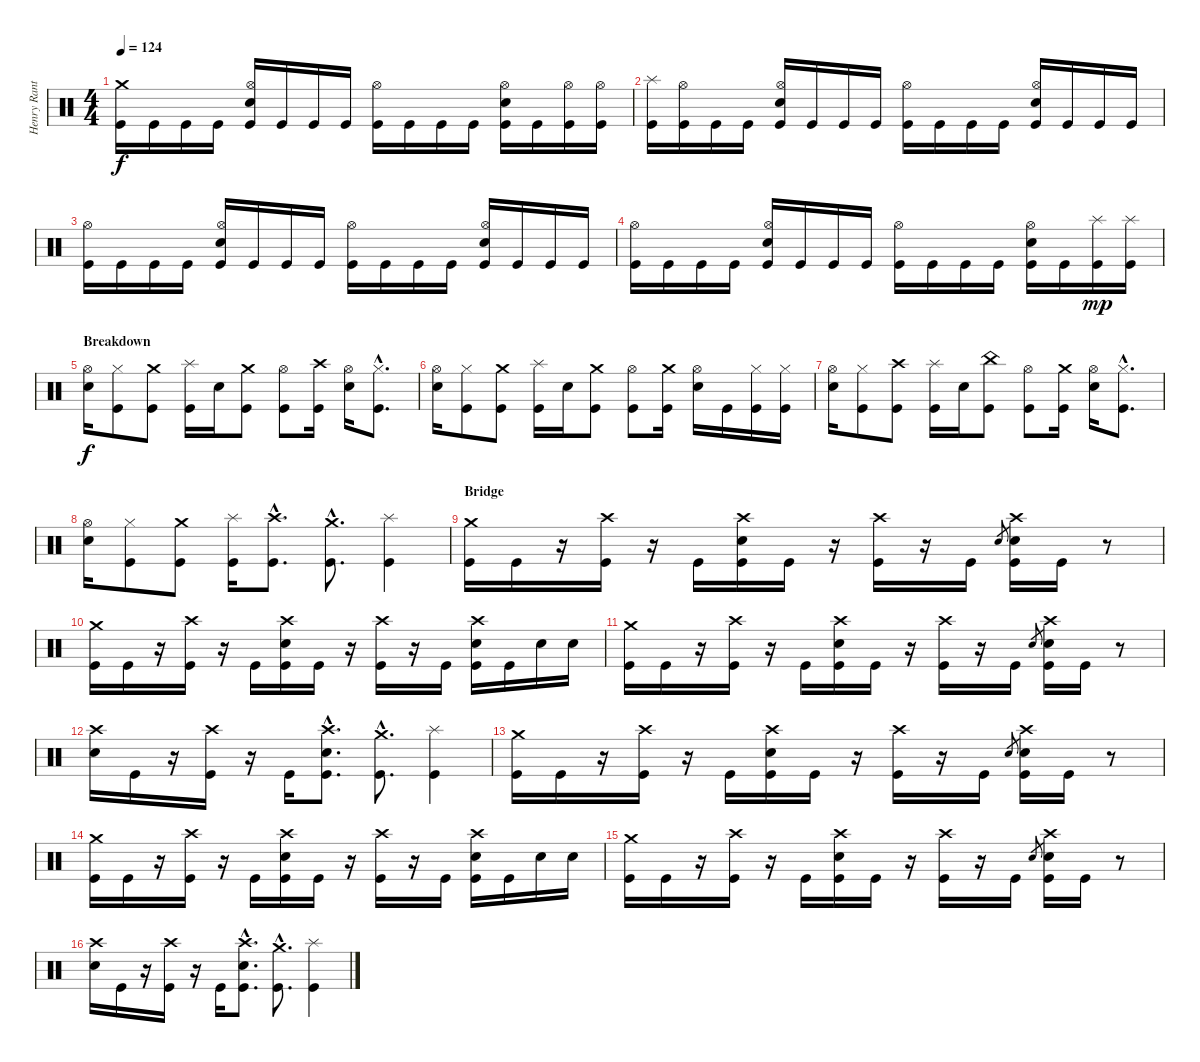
\track ("Henry Ranta" "Henry Rant") {instrument percussion}
\staff {score}
\articulation defaults
\ts (4 4)
\tempo 124
\clef neutral
\ks c
("Crash medium (hit)" "Kick (hit)").16{dy f} "Kick (hit)".16 "Kick (hit)".16 "Kick (hit)".16 ("Hi-Hat (open)" "Electric Snare (hit)" "Kick (hit)").16 "Kick (hit)".16 "Kick (hit)".16 "Kick (hit)".16 ("Hi-Hat (open)" "Kick (hit)").16 "Kick (hit)".16 "Kick (hit)".16 "Kick (hit)".16 ("Hi-Hat (open)" "Electric Snare (hit)" "Kick (hit)").16 "Kick (hit)".16 ("Hi-Hat (open)" "Kick (hit)").16 ("Hi-Hat (open)" "Kick (hit)").16 |
("Splash (hit)" "Kick (hit)").16 ("Hi-Hat (open)" "Kick (hit)").16 "Kick (hit)".16 "Kick (hit)".16 ("Hi-Hat (open)" "Electric Snare (hit)" "Kick (hit)").16 "Kick (hit)".16 "Kick (hit)".16 "Kick (hit)".16 ("Hi-Hat (open)" "Kick (hit)").16 "Kick (hit)".16 "Kick (hit)".16 "Kick (hit)".16 ("Hi-Hat (open)" "Electric Snare (hit)" "Kick (hit)").16 "Kick (hit)".16 "Kick (hit)".16 "Kick (hit)".16 |
("Hi-Hat (open)" "Kick (hit)").16 "Kick (hit)".16 "Kick (hit)".16 "Kick (hit)".16 ("Hi-Hat (open)" "Electric Snare (hit)" "Kick (hit)").16 "Kick (hit)".16 "Kick (hit)".16 "Kick (hit)".16 ("Hi-Hat (open)" "Kick (hit)").16 "Kick (hit)".16 "Kick (hit)".16 "Kick (hit)".16 ("Hi-Hat (open)" "Electric Snare (hit)" "Kick (hit)").16 "Kick (hit)".16 "Kick (hit)".16 "Kick (hit)".16 |
("Hi-Hat (open)" "Kick (hit)").16 "Kick (hit)".16 "Kick (hit)".16 "Kick (hit)".16 ("Hi-Hat (open)" "Electric Snare (hit)" "Kick (hit)").16 "Kick (hit)".16 "Kick (hit)".16 "Kick (hit)".16 ("Hi-Hat (open)" "Kick (hit)").16 "Kick (hit)".16 "Kick (hit)".16 "Kick (hit)".16 ("Hi-Hat (open)" "Electric Snare (hit)" "Kick (hit)").16 "Kick (hit)".16 ("Splash (hit)" "Kick (hit)").16{dy mp} ("Splash (hit)" "Kick (hit)").16 |
\section ("" "Breakdown")
("Hi-Hat (open)" "Electric Snare (hit)").16{dy f} ("Hi-Hat (closed)" "Kick (hit)").8 ("Crash medium (hit)" "Kick (hit)").8 ("Splash (hit)" "Kick (hit)").16 "Electric Snare (hit)".16 ("Crash medium (hit)" "Kick (hit)").8 ("Hi-Hat (open)" "Kick (hit)").8 ("Crash high (hit)" "Kick (hit)").16 ("Hi-Hat (open)" "Electric Snare (hit)").16 ("Hi-Hat (closed)"{hac} "Kick (hit)"{hac}).8{d} |
("Hi-Hat (open)" "Electric Snare (hit)").16 ("Hi-Hat (closed)" "Kick (hit)").8 ("Crash medium (hit)" "Kick (hit)").8 ("Splash (hit)" "Kick (hit)").16 "Electric Snare (hit)".16 ("Crash medium (hit)" "Kick (hit)").8 ("Hi-Hat (open)" "Kick (hit)").8 ("Crash medium (hit)" "Kick (hit)").16 ("Hi-Hat (open)" "Electric Snare (hit)").16 "Kick (hit)".16 ("Hi-Hat (closed)" "Kick (hit)").16 ("Hi-Hat (closed)" "Kick (hit)").16 |
("Hi-Hat (open)" "Electric Snare (hit)").16 ("Hi-Hat (closed)" "Kick (hit)").8 ("Crash high (hit)" "Kick (hit)").8 ("Splash (hit)" "Kick (hit)").16 "Electric Snare (hit)".16 ("China (hit)" "Kick (hit)").8 ("Hi-Hat (open)" "Kick (hit)").8 ("Crash medium (hit)" "Kick (hit)").16 ("Hi-Hat (open)" "Electric Snare (hit)").16 ("Hi-Hat (closed)"{hac} "Kick (hit)"{hac}).8{d} |
("Hi-Hat (open)" "Electric Snare (hit)").16 ("Hi-Hat (closed)" "Kick (hit)").8 ("Crash medium (hit)" "Kick (hit)").8 ("Splash (hit)" "Kick (hit)").16 ("Crash high (hit)"{hac} "Kick (hit)"{hac}).8{d} ("Crash medium (hit)"{hac} "Kick (hit)"{hac}).8{d} ("Splash (hit)" "Kick (hit)").4 |
\section ("" "Bridge")
("Crash medium (hit)" "Kick (hit)").16 "Kick (hit)".16 r.16 ("Crash high (hit)" "Kick (hit)").16 r.16 "Kick (hit)".16 ("Crash high (hit)" "Electric Snare (hit)" "Kick (hit)").16 "Kick (hit)".16 r.16 ("Crash high (hit)" "Kick (hit)").16 r.16 "Kick (hit)".16 "Electric Snare (hit)".8{gr} ("Crash high (hit)" "Electric Snare (hit)" "Kick (hit)").16 "Kick (hit)".16 r.8 |
("Crash medium (hit)" "Kick (hit)").16 "Kick (hit)".16 r.16 ("Crash high (hit)" "Kick (hit)").16 r.16 "Kick (hit)".16 ("Crash high (hit)" "Electric Snare (hit)" "Kick (hit)").16 "Kick (hit)".16 r.16 ("Crash high (hit)" "Kick (hit)").16 r.16 "Kick (hit)".16 ("Crash high (hit)" "Electric Snare (hit)" "Kick (hit)").16 "Kick (hit)".16 "Electric Snare (hit)".16 "Electric Snare (hit)".16 |
("Crash medium (hit)" "Kick (hit)").16 "Kick (hit)".16 r.16 ("Crash high (hit)" "Kick (hit)").16 r.16 "Kick (hit)".16 ("Crash high (hit)" "Electric Snare (hit)" "Kick (hit)").16 "Kick (hit)".16 r.16 ("Crash high (hit)" "Kick (hit)").16 r.16 "Kick (hit)".16 "Electric Snare (hit)".8{gr} ("Crash high (hit)" "Electric Snare (hit)" "Kick (hit)").16 "Kick (hit)".16 r.8 |
("Crash high (hit)" "Electric Snare (hit)").16 "Kick (hit)".16 r.16 ("Crash high (hit)" "Kick (hit)").16 r.16 "Kick (hit)".16 ("Crash high (hit)"{hac} "Electric Snare (hit)"{hac} "Kick (hit)"{hac}).8{d} ("Crash medium (hit)"{hac} "Kick (hit)"{hac}).8{d} ("Splash (hit)" "Kick (hit)").4 |
("Crash medium (hit)" "Kick (hit)").16 "Kick (hit)".16 r.16 ("Crash high (hit)" "Kick (hit)").16 r.16 "Kick (hit)".16 ("Crash high (hit)" "Electric Snare (hit)" "Kick (hit)").16 "Kick (hit)".16 r.16 ("Crash high (hit)" "Kick (hit)").16 r.16 "Kick (hit)".16 "Electric Snare (hit)".8{gr} ("Crash high (hit)" "Electric Snare (hit)" "Kick (hit)").16 "Kick (hit)".16 r.8 |
("Crash medium (hit)" "Kick (hit)").16 "Kick (hit)".16 r.16 ("Crash high (hit)" "Kick (hit)").16 r.16 "Kick (hit)".16 ("Crash high (hit)" "Electric Snare (hit)" "Kick (hit)").16 "Kick (hit)".16 r.16 ("Crash high (hit)" "Kick (hit)").16 r.16 "Kick (hit)".16 ("Crash high (hit)" "Electric Snare (hit)" "Kick (hit)").16 "Kick (hit)".16 "Electric Snare (hit)".16 "Electric Snare (hit)".16 |
("Crash medium (hit)" "Kick (hit)").16 "Kick (hit)".16 r.16 ("Crash high (hit)" "Kick (hit)").16 r.16 "Kick (hit)".16 ("Crash high (hit)" "Electric Snare (hit)" "Kick (hit)").16 "Kick (hit)".16 r.16 ("Crash high (hit)" "Kick (hit)").16 r.16 "Kick (hit)".16 "Electric Snare (hit)".8{gr} ("Crash high (hit)" "Electric Snare (hit)" "Kick (hit)").16 "Kick (hit)".16 r.8 |
("Crash high (hit)" "Electric Snare (hit)").16 "Kick (hit)".16 r.16 ("Crash high (hit)" "Kick (hit)").16 r.16 "Kick (hit)".16 ("Crash high (hit)"{hac} "Electric Snare (hit)"{hac} "Kick (hit)"{hac}).8{d} ("Crash medium (hit)"{hac} "Kick (hit)"{hac}).8{d} ("Splash (hit)" "Kick (hit)").4
